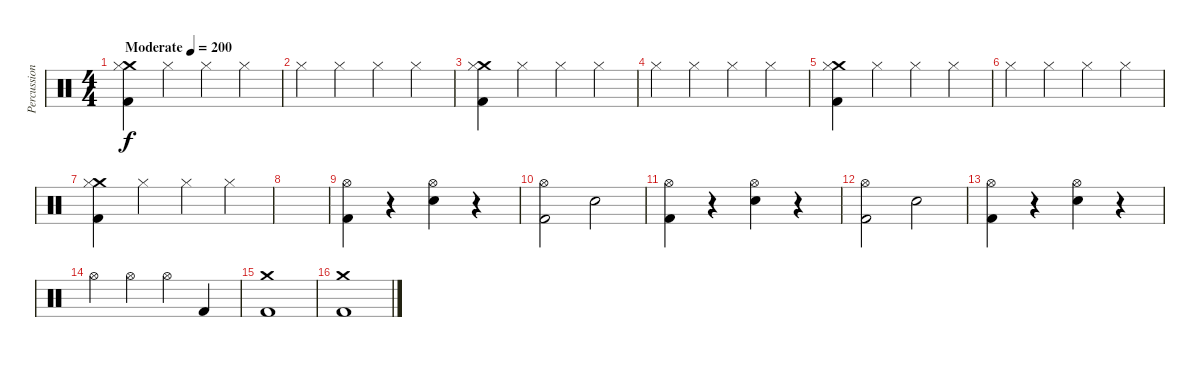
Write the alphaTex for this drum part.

\track ("Percussion" "Percussion") {instrument percussion}
\staff {score}
\articulation defaults
\ts (4 4)
\tempo (200 "Moderate")
\clef neutral
\ks c
("Crash medium (hit)" "Hi-Hat (closed)" "Kick (hit) 2").4{dy f} "Hi-Hat (closed)".4 "Hi-Hat (closed)".4 "Hi-Hat (closed)".4 |
"Hi-Hat (closed)".4 "Hi-Hat (closed)".4 "Hi-Hat (closed)".4 "Hi-Hat (closed)".4 |
("Crash medium (hit)" "Hi-Hat (closed)" "Kick (hit) 2").4 "Hi-Hat (closed)".4 "Hi-Hat (closed)".4 "Hi-Hat (closed)".4 |
"Hi-Hat (closed)".4 "Hi-Hat (closed)".4 "Hi-Hat (closed)".4 "Hi-Hat (closed)".4 |
("Crash medium (hit)" "Hi-Hat (closed)" "Kick (hit) 2").4 "Hi-Hat (closed)".4 "Hi-Hat (closed)".4 "Hi-Hat (closed)".4 |
"Hi-Hat (closed)".4 "Hi-Hat (closed)".4 "Hi-Hat (closed)".4 "Hi-Hat (closed)".4 |
("Crash medium (hit)" "Hi-Hat (closed)" "Kick (hit) 2").4 "Hi-Hat (closed)".4 "Hi-Hat (closed)".4 "Hi-Hat (closed)".4 |
|
("Hi-Hat (open)" "Kick (hit) 2").4 r.4 ("Hi-Hat (open)" "Electric Snare (hit)").4 r.4 |
("Hi-Hat (open)" "Kick (hit) 2").2 "Electric Snare (hit)".2 |
("Hi-Hat (open)" "Kick (hit) 2").4 r.4 ("Hi-Hat (open)" "Electric Snare (hit)").4 r.4 |
("Hi-Hat (open)" "Kick (hit) 2").2 "Electric Snare (hit)".2 |
("Hi-Hat (open)" "Kick (hit) 2").4 r.4 ("Hi-Hat (open)" "Electric Snare (hit)").4 r.4 |
"Hi-Hat (open)".4 "Hi-Hat (open)".4 "Hi-Hat (open)".4 "Kick (hit) 2".4 |
("Crash medium (hit)" "Kick (hit) 2").1 |
("Crash medium (hit)" "Kick (hit) 2").1
